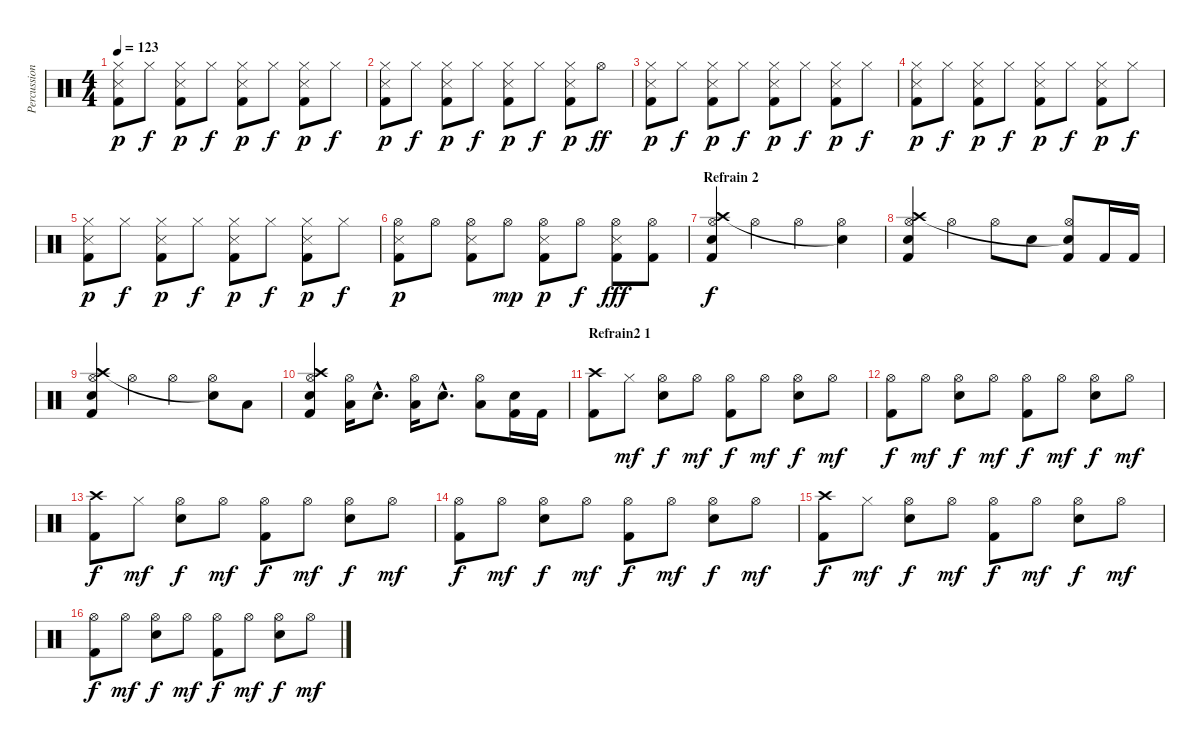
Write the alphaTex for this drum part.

\track ("Percussions" "Percussion") {instrument percussion}
\staff {score}
\articulation defaults
\ts (4 4)
\tempo 123
\clef neutral
\ks c
("Hi-Hat (closed)" "Snare (side stick) 3" "Kick (hit) 2").8{dy p} "Hi-Hat (closed)".8{dy f} ("Hi-Hat (closed)" "Snare (side stick) 3" "Kick (hit) 2").8{dy p} "Hi-Hat (closed)".8{dy f} ("Hi-Hat (closed)" "Snare (side stick) 3" "Kick (hit) 2").8{dy p} "Hi-Hat (closed)".8{dy f} ("Hi-Hat (closed)" "Snare (side stick) 3" "Kick (hit) 2").8{dy p} "Hi-Hat (closed)".8{dy f} |
("Hi-Hat (closed)" "Snare (side stick) 3" "Kick (hit) 2").8{dy p} "Hi-Hat (closed)".8{dy f} ("Hi-Hat (closed)" "Snare (side stick) 3" "Kick (hit) 2").8{dy p} "Hi-Hat (closed)".8{dy f} ("Hi-Hat (closed)" "Snare (side stick) 3" "Kick (hit) 2").8{dy p} "Hi-Hat (closed)".8{dy f} ("Hi-Hat (closed)" "Snare (side stick) 3" "Kick (hit) 2").8{dy p} "Hi-Hat (open)".8{dy ff} |
("Hi-Hat (closed)" "Snare (side stick) 3" "Kick (hit) 2").8{dy p} "Hi-Hat (closed)".8{dy f} ("Hi-Hat (closed)" "Snare (side stick) 3" "Kick (hit) 2").8{dy p} "Hi-Hat (closed)".8{dy f} ("Hi-Hat (closed)" "Snare (side stick) 3" "Kick (hit) 2").8{dy p} "Hi-Hat (closed)".8{dy f} ("Hi-Hat (closed)" "Snare (side stick) 3" "Kick (hit) 2").8{dy p} "Hi-Hat (closed)".8{dy f} |
("Hi-Hat (closed)" "Snare (side stick) 3" "Kick (hit) 2").8{dy p} "Hi-Hat (closed)".8{dy f} ("Hi-Hat (closed)" "Snare (side stick) 3" "Kick (hit) 2").8{dy p} "Hi-Hat (closed)".8{dy f} ("Hi-Hat (closed)" "Snare (side stick) 3" "Kick (hit) 2").8{dy p} "Hi-Hat (closed)".8{dy f} ("Hi-Hat (closed)" "Snare (side stick) 3" "Kick (hit) 2").8{dy p} "Hi-Hat (closed)".8{dy f} |
("Hi-Hat (closed)" "Snare (side stick) 3" "Kick (hit) 2").8{dy p} "Hi-Hat (closed)".8{dy f} ("Hi-Hat (closed)" "Snare (side stick) 3" "Kick (hit) 2").8{dy p} "Hi-Hat (closed)".8{dy f} ("Hi-Hat (closed)" "Snare (side stick) 3" "Kick (hit) 2").8{dy p} "Hi-Hat (closed)".8{dy f} ("Hi-Hat (closed)" "Snare (side stick) 3" "Kick (hit) 2").8{dy p} "Hi-Hat (closed)".8{dy f} |
("Hi-Hat (open)" "Snare (side stick) 3" "Kick (hit) 2").8{dy p} "Hi-Hat (open)".8 ("Hi-Hat (open)" "Snare (side stick) 3" "Kick (hit) 2").8 "Hi-Hat (open)".8{dy mp} ("Hi-Hat (open)" "Snare (side stick) 3" "Kick (hit) 2").8{dy p} "Hi-Hat (open)".8{dy f} ("Hi-Hat (open)" "Snare (side stick) 3" "Kick (hit) 2").8{dy fff} ("Hi-Hat (open)" "Kick (hit) 2").8 |
\section ("" "Refrain 2")
("Hi-Hat (open)" "Crash high (hit)" "Electric Snare (hit)" "Kick (hit) 2").4{dy f} "Hi-Hat (open)".4 "Hi-Hat (open)".4 ("Hi-Hat (open)" "Snare (hit)"{t}).4 |
("Hi-Hat (open)" "Crash high (hit)" "Electric Snare (hit)" "Kick (hit) 2").4 "Hi-Hat (open)".4 "Hi-Hat (open)".8 "Electric Snare (hit)".8 ("Hi-Hat (open)" "Snare (hit)"{t} "Kick (hit) 2").8 "Kick (hit) 2".16 "Kick (hit) 2".16 |
("Hi-Hat (open)" "Crash high (hit)" "Electric Snare (hit)" "Kick (hit) 2").4 "Hi-Hat (open)".4 "Hi-Hat (open)".4 ("Hi-Hat (open)" "Snare (hit)"{t}).8 "Low Floor Tom (hit)".8 |
("Hi-Hat (open)" "Crash high (hit)" "Electric Snare (hit)" "Kick (hit) 2").4 ("Hi-Hat (open)" "Low Floor Tom (hit)").16 "Electric Snare (hit)"{hac}.8{d} ("Hi-Hat (open)" "Low Floor Tom (hit)").16 "Electric Snare (hit)"{hac}.8{d} ("Hi-Hat (open)" "Low Floor Tom (hit)").8 ("Electric Snare (hit)" "Kick (hit) 2").16 "Kick (hit) 2".16 |
\section ("" "Refrain2 1")
("Crash high (hit)" "Kick (hit) 2").8 "Hi-Hat (closed)".8{dy mf} ("Hi-Hat (open)" "Electric Snare (hit)").8{dy f} "Hi-Hat (open)".8{dy mf} ("Hi-Hat (open)" "Kick (hit) 2").8{dy f} "Hi-Hat (open)".8{dy mf} ("Hi-Hat (open)" "Electric Snare (hit)").8{dy f} "Hi-Hat (open)".8{dy mf} |
("Hi-Hat (open)" "Kick (hit) 2").8{dy f} "Hi-Hat (open)".8{dy mf} ("Hi-Hat (open)" "Electric Snare (hit)").8{dy f} "Hi-Hat (open)".8{dy mf} ("Hi-Hat (open)" "Kick (hit) 2").8{dy f} "Hi-Hat (open)".8{dy mf} ("Hi-Hat (open)" "Electric Snare (hit)").8{dy f} "Hi-Hat (open)".8{dy mf} |
("Crash high (hit)" "Kick (hit) 2").8{dy f} "Hi-Hat (closed)".8{dy mf} ("Hi-Hat (open)" "Electric Snare (hit)").8{dy f} "Hi-Hat (open)".8{dy mf} ("Hi-Hat (open)" "Kick (hit) 2").8{dy f} "Hi-Hat (open)".8{dy mf} ("Hi-Hat (open)" "Electric Snare (hit)").8{dy f} "Hi-Hat (open)".8{dy mf} |
("Hi-Hat (open)" "Kick (hit) 2").8{dy f} "Hi-Hat (open)".8{dy mf} ("Hi-Hat (open)" "Electric Snare (hit)").8{dy f} "Hi-Hat (open)".8{dy mf} ("Hi-Hat (open)" "Kick (hit) 2").8{dy f} "Hi-Hat (open)".8{dy mf} ("Hi-Hat (open)" "Electric Snare (hit)").8{dy f} "Hi-Hat (open)".8{dy mf} |
("Crash high (hit)" "Kick (hit) 2").8{dy f} "Hi-Hat (closed)".8{dy mf} ("Hi-Hat (open)" "Electric Snare (hit)").8{dy f} "Hi-Hat (open)".8{dy mf} ("Hi-Hat (open)" "Kick (hit) 2").8{dy f} "Hi-Hat (open)".8{dy mf} ("Hi-Hat (open)" "Electric Snare (hit)").8{dy f} "Hi-Hat (open)".8{dy mf} |
("Hi-Hat (open)" "Kick (hit) 2").8{dy f} "Hi-Hat (open)".8{dy mf} ("Hi-Hat (open)" "Electric Snare (hit)").8{dy f} "Hi-Hat (open)".8{dy mf} ("Hi-Hat (open)" "Kick (hit) 2").8{dy f} "Hi-Hat (open)".8{dy mf} ("Hi-Hat (open)" "Electric Snare (hit)").8{dy f} "Hi-Hat (open)".8{dy mf}
